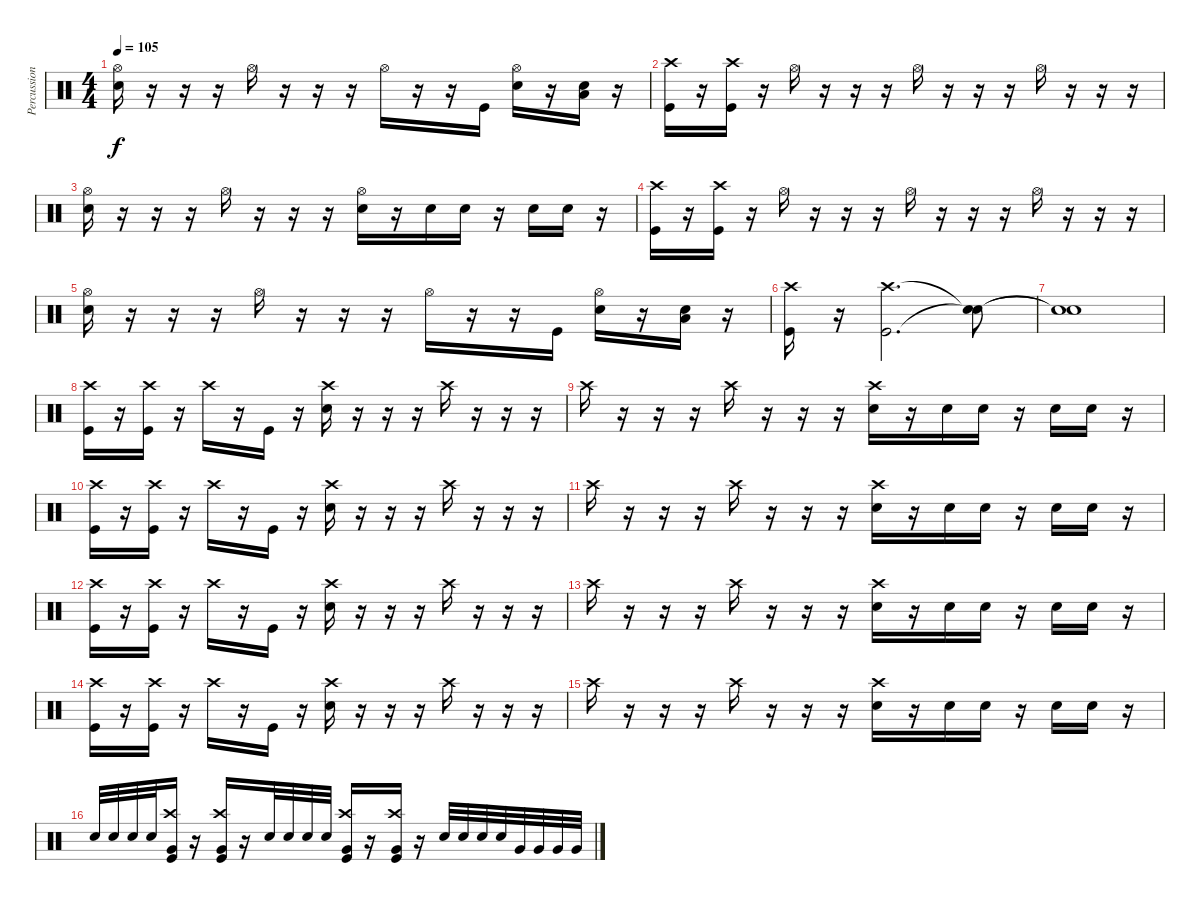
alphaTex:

\track ("Percussion" "Percussion") {instrument percussion}
\staff {score}
\articulation defaults
\ts (4 4)
\tempo 105
\clef neutral
\ks c
("Hi-Hat (open)" "Snare (hit) 2").16{dy f} r.16 r.16 r.16 "Hi-Hat (open)".16 r.16 r.16 r.16 "Hi-Hat (open)".16 r.16 r.16 "Kick (hit)".16 ("Hi-Hat (open)" "Snare (hit) 2").16 r.16 ("Low Floor Tom (hit)" "Snare (hit) 2").16 r.16 |
("Crash high (hit)" "Kick (hit)").16 r.16 ("Crash high (hit)" "Kick (hit)").16 r.16 "Hi-Hat (open)".16 r.16 r.16 r.16 "Hi-Hat (open)".16 r.16 r.16 r.16 "Hi-Hat (open)".16 r.16 r.16 r.16 |
("Hi-Hat (open)" "Snare (hit) 2").16 r.16 r.16 r.16 "Hi-Hat (open)".16 r.16 r.16 r.16 ("Hi-Hat (open)" "Snare (hit) 2").16 r.16 "Snare (hit) 2".16 "Snare (hit) 2".16 r.16 "Snare (hit) 2".16 "Snare (hit) 2".16 r.16 |
("Crash high (hit)" "Kick (hit)").16 r.16 ("Crash high (hit)" "Kick (hit)").16 r.16 "Hi-Hat (open)".16 r.16 r.16 r.16 "Hi-Hat (open)".16 r.16 r.16 r.16 "Hi-Hat (open)".16 r.16 r.16 r.16 |
("Hi-Hat (open)" "Snare (hit) 2").16 r.16 r.16 r.16 "Hi-Hat (open)".16 r.16 r.16 r.16 "Hi-Hat (open)".16 r.16 r.16 "Kick (hit)".16 ("Hi-Hat (open)" "Snare (hit) 2").16 r.16 ("Low Floor Tom (hit)" "Snare (hit) 2").16 r.16 |
("Crash high (hit)" "Kick (hit)").16 r.16 ("Crash high (hit)" "Kick (hit)").2{d} ("Snare (hit)"{t} "Snare (hit)"{t}).8 |
("Snare (hit)"{t} "Snare (hit)"{t}).1 |
("Crash high (hit)" "Kick (hit)").16 r.16 ("Crash high (hit)" "Kick (hit)").16 r.16 "Crash high (hit)".16 r.16 "Kick (hit)".16 r.16 ("Crash high (hit)" "Snare (hit) 2").16 r.16 r.16 r.16 "Crash high (hit)".16 r.16 r.16 r.16 |
"Crash high (hit)".16 r.16 r.16 r.16 "Crash high (hit)".16 r.16 r.16 r.16 ("Crash high (hit)" "Snare (hit) 2").16 r.16 "Snare (hit) 2".16 "Snare (hit) 2".16 r.16 "Snare (hit) 2".16 "Snare (hit) 2".16 r.16 |
("Crash high (hit)" "Kick (hit)").16 r.16 ("Crash high (hit)" "Kick (hit)").16 r.16 "Crash high (hit)".16 r.16 "Kick (hit)".16 r.16 ("Crash high (hit)" "Snare (hit) 2").16 r.16 r.16 r.16 "Crash high (hit)".16 r.16 r.16 r.16 |
"Crash high (hit)".16 r.16 r.16 r.16 "Crash high (hit)".16 r.16 r.16 r.16 ("Crash high (hit)" "Snare (hit) 2").16 r.16 "Snare (hit) 2".16 "Snare (hit) 2".16 r.16 "Snare (hit) 2".16 "Snare (hit) 2".16 r.16 |
("Crash high (hit)" "Kick (hit)").16 r.16 ("Crash high (hit)" "Kick (hit)").16 r.16 "Crash high (hit)".16 r.16 "Kick (hit)".16 r.16 ("Crash high (hit)" "Snare (hit) 2").16 r.16 r.16 r.16 "Crash high (hit)".16 r.16 r.16 r.16 |
"Crash high (hit)".16 r.16 r.16 r.16 "Crash high (hit)".16 r.16 r.16 r.16 ("Crash high (hit)" "Snare (hit) 2").16 r.16 "Snare (hit) 2".16 "Snare (hit) 2".16 r.16 "Snare (hit) 2".16 "Snare (hit) 2".16 r.16 |
("Crash high (hit)" "Kick (hit)").16 r.16 ("Crash high (hit)" "Kick (hit)").16 r.16 "Crash high (hit)".16 r.16 "Kick (hit)".16 r.16 ("Crash high (hit)" "Snare (hit) 2").16 r.16 r.16 r.16 "Crash high (hit)".16 r.16 r.16 r.16 |
"Crash high (hit)".16 r.16 r.16 r.16 "Crash high (hit)".16 r.16 r.16 r.16 ("Crash high (hit)" "Snare (hit) 2").16 r.16 "Snare (hit) 2".16 "Snare (hit) 2".16 r.16 "Snare (hit) 2".16 "Snare (hit) 2".16 r.16 |
"Snare (hit) 2".32 "Snare (hit) 2".32 "Snare (hit) 2".32 "Snare (hit) 2".32 ("Crash high (hit)" "Very Low Tom (hit)" "Kick (hit)").16 r.16 ("Crash high (hit)" "Very Low Tom (hit)" "Kick (hit)").16 r.16 "Snare (hit) 2".32 "Snare (hit) 2".32 "Snare (hit) 2".32 "Snare (hit) 2".32 ("Crash high (hit)" "Very Low Tom (hit)" "Kick (hit)").16 r.16 ("Crash high (hit)" "Very Low Tom (hit)" "Kick (hit)").16 r.16 "Snare (hit) 2".32 "Snare (hit) 2".32 "Snare (hit) 2".32 "Snare (hit) 2".32 "Very Low Tom (hit)".32 "Very Low Tom (hit)".32 "Very Low Tom (hit)".32 "Very Low Tom (hit)".32
